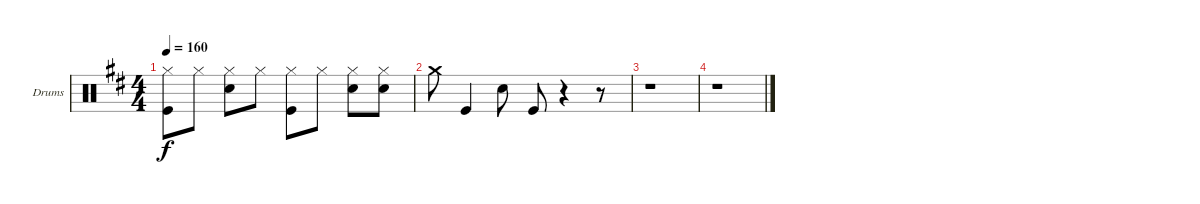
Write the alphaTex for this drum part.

\defaultSystemsLayout 4
\bracketExtendMode groupsimilarinstruments
\firstSystemTrackNameOrientation horizontal
\otherSystemsTrackNameOrientation horizontal
\track ("Drumkit" "Drums") {instrument percussion}
\staff {score}
\articulation defaults
\ts (4 4)
\tempo 160
\clef neutral
\ks d
("Kick (hit)" "Hi-Hat (closed)").8{dy f} "Hi-Hat (closed)".8 ("Snare (hit) 2" "Hi-Hat (closed)").8 "Hi-Hat (closed)".8 ("Kick (hit)" "Hi-Hat (closed)").8 "Hi-Hat (closed)".8 ("Snare (hit) 2" "Hi-Hat (closed)").8 ("Snare (hit) 2" "Hi-Hat (closed)").8 |
"Crash medium (hit)".8 "Kick (hit)".4 "Snare (hit) 2".8 "Kick (hit)".8 r.4 r.8 |
r.1 |
r.1
